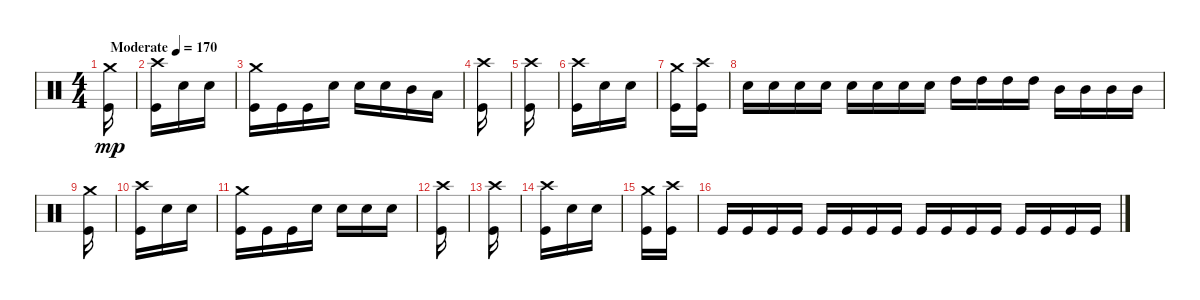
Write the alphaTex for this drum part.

\track "" {instrument percussion}
\staff {score}
\articulation defaults
\ts (4 4)
\tempo (170 "Moderate")
\clef neutral
\ks c
("Crash medium (hit)" "Kick (hit)").16{dy mp} |
("Crash high (hit)" "Kick (hit)").16 "Snare (hit) 2".16 "Snare (hit) 2".16 |
("Crash medium (hit)" "Kick (hit)").16 "Kick (hit)".16 "Kick (hit)".16 "Snare (hit) 2".16 "Snare (hit) 2".16 "Snare (hit) 2".16 "Mid Tom (hit)".16 "Low Tom (hit)".16 |
("Crash high (hit)" "Kick (hit)").16 |
("Crash high (hit)" "Kick (hit)").16 |
("Crash high (hit)" "Kick (hit)").16 "Snare (hit) 2".16 "Snare (hit) 2".16 |
("Crash medium (hit)" "Kick (hit)").16 ("Crash high (hit)" "Kick (hit)").16 |
"Snare (hit) 2".16 "Snare (hit) 2".16 "Snare (hit) 2".16 "Snare (hit) 2".16 "Snare (hit) 2".16 "Snare (hit) 2".16 "Snare (hit) 2".16 "Snare (hit) 2".16 "High Tom (hit)".16 "High Tom (hit)".16 "High Tom (hit)".16 "High Tom (hit)".16 "Mid Tom (hit)".16 "Mid Tom (hit)".16 "Mid Tom (hit)".16 "Mid Tom (hit)".16 |
("Crash medium (hit)" "Kick (hit)").16 |
("Crash high (hit)" "Kick (hit)").16 "Snare (hit) 2".16 "Snare (hit) 2".16 |
("Crash medium (hit)" "Kick (hit)").16 "Kick (hit)".16 "Kick (hit)".16 "Snare (hit) 2".16 "Snare (hit) 2".16 "Snare (hit) 2".16 "Snare (hit) 2".16 |
("Crash high (hit)" "Kick (hit)").16 |
("Crash high (hit)" "Kick (hit)").16 |
("Crash high (hit)" "Kick (hit)").16 "Snare (hit) 2".16 "Snare (hit) 2".16 |
("Crash medium (hit)" "Kick (hit)").16 ("Crash high (hit)" "Kick (hit)").16 |
"Kick (hit)".16 "Kick (hit)".16 "Kick (hit)".16 "Kick (hit)".16 "Kick (hit)".16 "Kick (hit)".16 "Kick (hit)".16 "Kick (hit)".16 "Kick (hit)".16 "Kick (hit)".16 "Kick (hit)".16 "Kick (hit)".16 "Kick (hit)".16 "Kick (hit)".16 "Kick (hit)".16 "Kick (hit)".16
